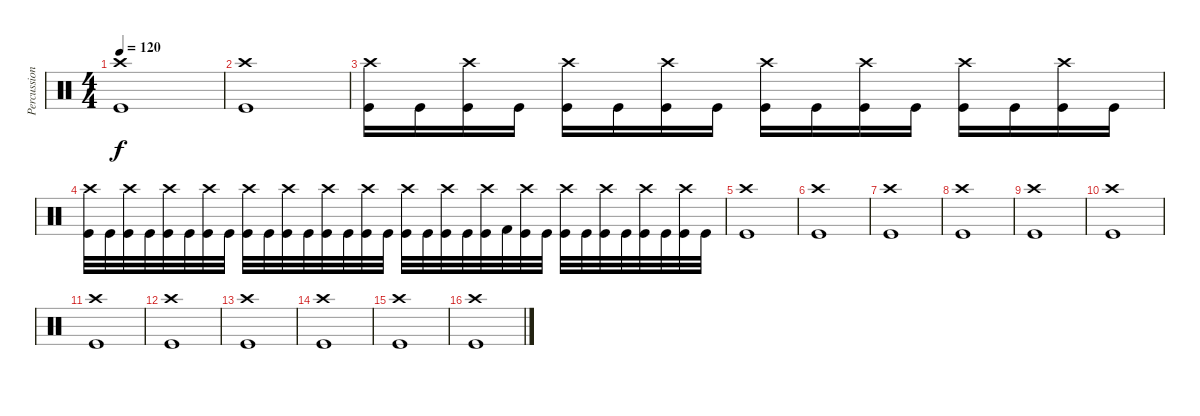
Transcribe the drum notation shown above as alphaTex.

\track ("Percussion" "Percussion") {instrument percussion}
\staff {score}
\articulation defaults
\ts (4 4)
\tempo 120
\clef neutral
\ks c
("Crash high (hit)" "Kick (hit)").1{dy f} |
("Crash high (hit)" "Kick (hit)").1 |
("Kick (hit)" "Crash high (hit)").16 "Kick (hit)".16 ("Kick (hit)" "Crash high (hit)").16 "Kick (hit)".16 ("Kick (hit)" "Crash high (hit)").16 "Kick (hit)".16 ("Kick (hit)" "Crash high (hit)").16 "Kick (hit)".16 ("Kick (hit)" "Crash high (hit)").16 "Kick (hit)".16 ("Kick (hit)" "Crash high (hit)").16 "Kick (hit)".16 ("Kick (hit)" "Crash high (hit)").16 "Kick (hit)".16 ("Kick (hit)" "Crash high (hit)").16 "Kick (hit)".16 |
("Kick (hit)" "Crash high (hit)").32 "Kick (hit)".32 ("Kick (hit)" "Crash high (hit)").32 "Kick (hit)".32 ("Kick (hit)" "Crash high (hit)").32 "Kick (hit)".32 ("Kick (hit)" "Crash high (hit)").32 "Kick (hit)".32 ("Kick (hit)" "Crash high (hit)").32 "Kick (hit)".32 ("Kick (hit)" "Crash high (hit)").32 "Kick (hit)".32 ("Kick (hit)" "Crash high (hit)").32 "Kick (hit)".32 ("Kick (hit)" "Crash high (hit)").32 "Kick (hit)".32 ("Kick (hit)" "Crash high (hit)").32 "Kick (hit)".32 ("Kick (hit)" "Crash high (hit)").32 "Kick (hit)".32 ("Kick (hit)" "Crash high (hit)").32 "Kick (hit) 2".32 ("Kick (hit)" "Crash high (hit)").32 "Kick (hit)".32 ("Kick (hit)" "Crash high (hit)").32 "Kick (hit)".32 ("Kick (hit)" "Crash high (hit)").32 "Kick (hit)".32 ("Kick (hit)" "Crash high (hit)").32 "Kick (hit)".32 ("Kick (hit)" "Crash high (hit)").32 "Kick (hit)".32 |
("Crash high (hit)" "Kick (hit)").1 |
("Crash high (hit)" "Kick (hit)").1 |
("Crash high (hit)" "Kick (hit)").1 |
("Crash high (hit)" "Kick (hit)").1 |
("Crash high (hit)" "Kick (hit)").1 |
("Crash high (hit)" "Kick (hit)").1 |
("Crash high (hit)" "Kick (hit)").1 |
("Crash high (hit)" "Kick (hit)").1 |
("Crash high (hit)" "Kick (hit)").1 |
("Crash high (hit)" "Kick (hit)").1 |
("Crash high (hit)" "Kick (hit)").1 |
("Crash high (hit)" "Kick (hit)").1
